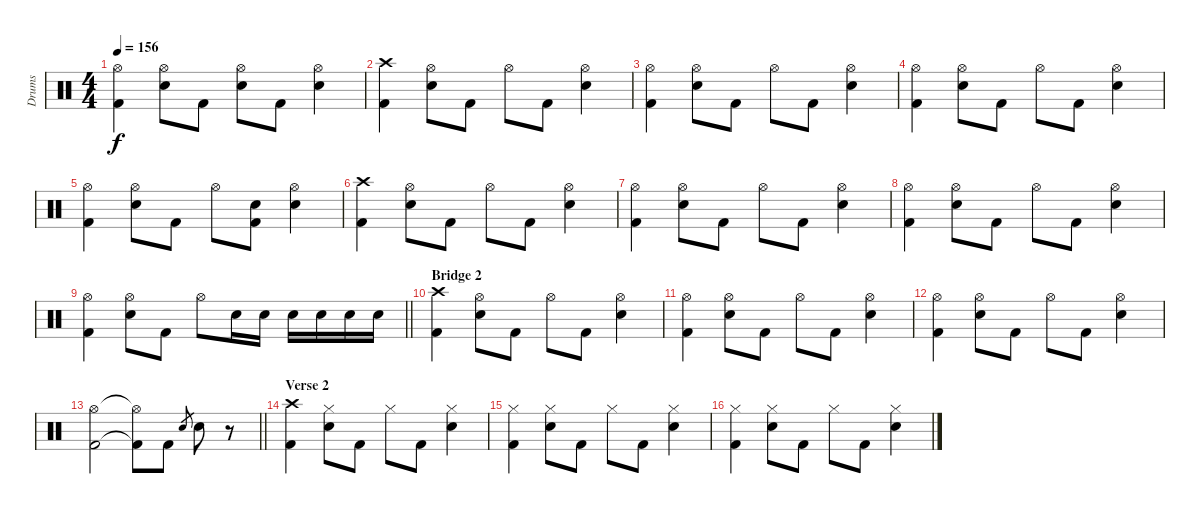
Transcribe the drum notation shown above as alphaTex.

\track ("Drums" "Drums") {instrument percussion}
\staff {score}
\articulation defaults
\ts (4 4)
\tempo 156
\clef neutral
\ks c
("Hi-Hat (open)" "Kick (hit) 2").4{dy f} ("Hi-Hat (open)" "Electric Snare (hit)").8 "Kick (hit) 2".8 ("Hi-Hat (open)" "Electric Snare (hit)").8 "Kick (hit) 2".8 ("Hi-Hat (open)" "Electric Snare (hit)").4 |
("Crash high (hit)" "Kick (hit) 2").4 ("Hi-Hat (open)" "Electric Snare (hit)").8 "Kick (hit) 2".8 "Hi-Hat (open)".8 "Kick (hit) 2".8 ("Hi-Hat (open)" "Electric Snare (hit)").4 |
("Hi-Hat (open)" "Kick (hit) 2").4 ("Hi-Hat (open)" "Electric Snare (hit)").8 "Kick (hit) 2".8 "Hi-Hat (open)".8 "Kick (hit) 2".8 ("Hi-Hat (open)" "Electric Snare (hit)").4 |
("Hi-Hat (open)" "Kick (hit) 2").4 ("Hi-Hat (open)" "Electric Snare (hit)").8 "Kick (hit) 2".8 "Hi-Hat (open)".8 "Kick (hit) 2".8 ("Hi-Hat (open)" "Electric Snare (hit)").4 |
("Hi-Hat (open)" "Kick (hit) 2").4 ("Hi-Hat (open)" "Electric Snare (hit)").8 "Kick (hit) 2".8 "Hi-Hat (open)".8 ("Electric Snare (hit)" "Kick (hit) 2").8 ("Hi-Hat (open)" "Electric Snare (hit)").4 |
("Crash high (hit)" "Kick (hit) 2").4 ("Hi-Hat (open)" "Electric Snare (hit)").8 "Kick (hit) 2".8 "Hi-Hat (open)".8 "Kick (hit) 2".8 ("Hi-Hat (open)" "Electric Snare (hit)").4 |
("Hi-Hat (open)" "Kick (hit) 2").4 ("Hi-Hat (open)" "Electric Snare (hit)").8 "Kick (hit) 2".8 "Hi-Hat (open)".8 "Kick (hit) 2".8 ("Hi-Hat (open)" "Electric Snare (hit)").4 |
("Hi-Hat (open)" "Kick (hit) 2").4 ("Hi-Hat (open)" "Electric Snare (hit)").8 "Kick (hit) 2".8 "Hi-Hat (open)".8 "Kick (hit) 2".8 ("Hi-Hat (open)" "Electric Snare (hit)").4 |
\barLineRight lightlight
("Hi-Hat (open)" "Kick (hit) 2").4 ("Hi-Hat (open)" "Electric Snare (hit)").8 "Kick (hit) 2".8 "Hi-Hat (open)".8 "Electric Snare (hit)".16 "Electric Snare (hit)".16 "Electric Snare (hit)".16 "Electric Snare (hit)".16 "Electric Snare (hit)".16 "Electric Snare (hit)".16 |
\section ("" "Bridge 2")
("Crash high (hit)" "Kick (hit) 2").4 ("Hi-Hat (open)" "Electric Snare (hit)").8 "Kick (hit) 2".8 "Hi-Hat (open)".8 "Kick (hit) 2".8 ("Hi-Hat (open)" "Electric Snare (hit)").4 |
("Hi-Hat (open)" "Kick (hit) 2").4 ("Hi-Hat (open)" "Electric Snare (hit)").8 "Kick (hit) 2".8 "Hi-Hat (open)".8 "Kick (hit) 2".8 ("Hi-Hat (open)" "Electric Snare (hit)").4 |
("Hi-Hat (open)" "Kick (hit) 2").4 ("Hi-Hat (open)" "Electric Snare (hit)").8 "Kick (hit) 2".8 "Hi-Hat (open)".8 "Kick (hit) 2".8 ("Hi-Hat (open)" "Electric Snare (hit)").4 |
\barLineRight lightlight
("Hi-Hat (open)" "Kick (hit) 2").2 ("Hi-Hat (open)"{t} "Kick (hit) 2"{t}).8 "Kick (hit) 2".8 "Electric Snare (hit)".8{gr} "Electric Snare (hit)".8 r.8 |
\section ("" "Verse 2")
("Crash high (hit)" "Kick (hit) 2").4 ("Hi-Hat (closed)" "Electric Snare (hit)").8 "Kick (hit) 2".8 "Hi-Hat (closed)".8 "Kick (hit) 2".8 ("Hi-Hat (closed)" "Electric Snare (hit)").4 |
("Hi-Hat (closed)" "Kick (hit) 2").4 ("Hi-Hat (closed)" "Electric Snare (hit)").8 "Kick (hit) 2".8 "Hi-Hat (closed)".8 "Kick (hit) 2".8 ("Hi-Hat (closed)" "Electric Snare (hit)").4 |
("Hi-Hat (closed)" "Kick (hit) 2").4 ("Hi-Hat (closed)" "Electric Snare (hit)").8 "Kick (hit) 2".8 "Hi-Hat (closed)".8 "Kick (hit) 2".8 ("Hi-Hat (closed)" "Electric Snare (hit)").4
